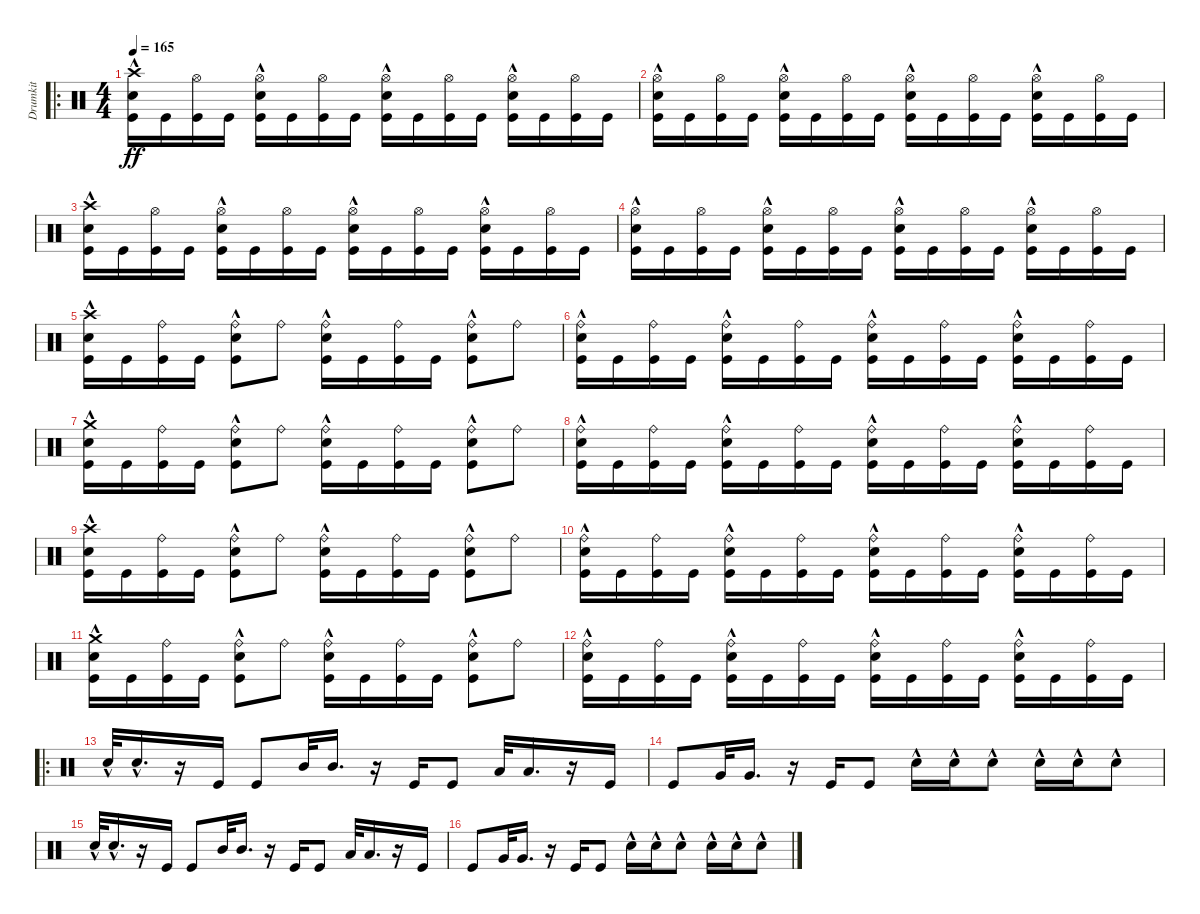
\track ("Drumkit" "Drumkit") {instrument percussion}
\staff {score}
\articulation defaults
\ro
\ts (4 4)
\tempo 165
\clef neutral
\ks c
("Kick (hit)" "Crash high (hit)" "Snare (hit) 2"{hac}).16{dy ff} "Kick (hit)".16 ("Kick (hit)" "Hi-Hat (open)").16 "Kick (hit)".16 ("Kick (hit)" "Snare (hit) 2"{hac} "Hi-Hat (open)").16 "Kick (hit)".16 ("Kick (hit)" "Hi-Hat (open)").16 "Kick (hit)".16 ("Kick (hit)" "Snare (hit) 2"{hac} "Hi-Hat (open)").16 "Kick (hit)".16 ("Kick (hit)" "Hi-Hat (open)").16 "Kick (hit)".16 ("Kick (hit)" "Snare (hit) 2"{hac} "Hi-Hat (open)").16 "Kick (hit)".16 ("Kick (hit)" "Hi-Hat (open)").16 "Kick (hit)".16 |
("Kick (hit)" "Snare (hit) 2"{hac} "Hi-Hat (open)").16 "Kick (hit)".16 ("Kick (hit)" "Hi-Hat (open)").16 "Kick (hit)".16 ("Kick (hit)" "Snare (hit) 2"{hac} "Hi-Hat (open)").16 "Kick (hit)".16 ("Kick (hit)" "Hi-Hat (open)").16 "Kick (hit)".16 ("Kick (hit)" "Snare (hit) 2"{hac} "Hi-Hat (open)").16 "Kick (hit)".16 ("Kick (hit)" "Hi-Hat (open)").16 "Kick (hit)".16 ("Kick (hit)" "Snare (hit) 2"{hac} "Hi-Hat (open)").16 "Kick (hit)".16 ("Kick (hit)" "Hi-Hat (open)").16 "Kick (hit)".16 |
("Kick (hit)" "Crash high (hit)" "Snare (hit) 2"{hac}).16 "Kick (hit)".16 ("Kick (hit)" "Hi-Hat (open)").16 "Kick (hit)".16 ("Kick (hit)" "Snare (hit) 2"{hac} "Hi-Hat (open)").16 "Kick (hit)".16 ("Kick (hit)" "Hi-Hat (open)").16 "Kick (hit)".16 ("Kick (hit)" "Snare (hit) 2"{hac} "Hi-Hat (open)").16 "Kick (hit)".16 ("Kick (hit)" "Hi-Hat (open)").16 "Kick (hit)".16 ("Kick (hit)" "Snare (hit) 2"{hac} "Hi-Hat (open)").16 "Kick (hit)".16 ("Kick (hit)" "Hi-Hat (open)").16 "Kick (hit)".16 |
("Kick (hit)" "Snare (hit) 2"{hac} "Hi-Hat (open)").16 "Kick (hit)".16 ("Kick (hit)" "Hi-Hat (open)").16 "Kick (hit)".16 ("Kick (hit)" "Snare (hit) 2"{hac} "Hi-Hat (open)").16 "Kick (hit)".16 ("Kick (hit)" "Hi-Hat (open)").16 "Kick (hit)".16 ("Kick (hit)" "Snare (hit) 2"{hac} "Hi-Hat (open)").16 "Kick (hit)".16 ("Kick (hit)" "Hi-Hat (open)").16 "Kick (hit)".16 ("Kick (hit)" "Snare (hit) 2"{hac} "Hi-Hat (open)").16 "Kick (hit)".16 ("Kick (hit)" "Hi-Hat (open)").16 "Kick (hit)".16 |
("Kick (hit)" "Crash high (hit)" "Snare (hit) 2"{hac}).16 "Kick (hit)".16 ("Kick (hit)" "Ride (bell)").16 "Kick (hit)".16 ("Kick (hit)" "Snare (hit) 2"{hac} "Ride (bell)").8 "Ride (bell)".8 ("Kick (hit)" "Snare (hit) 2"{hac} "Ride (bell)").16 "Kick (hit)".16 ("Kick (hit)" "Ride (bell)").16 "Kick (hit)".16 ("Snare (hit) 2"{hac} "Ride (bell)" "Kick (hit)").8 "Ride (bell)".8 |
("Kick (hit)" "Snare (hit) 2"{hac} "Ride (bell)").16 "Kick (hit)".16 ("Kick (hit)" "Ride (bell)").16 "Kick (hit)".16 ("Kick (hit)" "Snare (hit) 2"{hac} "Ride (bell)").16 "Kick (hit)".16 ("Kick (hit)" "Ride (bell)").16 "Kick (hit)".16 ("Kick (hit)" "Snare (hit) 2"{hac} "Ride (bell)").16 "Kick (hit)".16 ("Kick (hit)" "Ride (bell)").16 "Kick (hit)".16 ("Kick (hit)" "Snare (hit) 2"{hac} "Ride (bell)").16 "Kick (hit)".16 ("Kick (hit)" "Ride (bell)").16 "Kick (hit)".16 |
("Kick (hit)" "Snare (hit) 2"{hac} "Crash medium (hit)").16 "Kick (hit)".16 ("Kick (hit)" "Ride (bell)").16 "Kick (hit)".16 ("Snare (hit) 2"{hac} "Ride (bell)" "Kick (hit)").8 "Ride (bell)".8 ("Kick (hit)" "Snare (hit) 2"{hac} "Ride (bell)").16 "Kick (hit)".16 ("Kick (hit)" "Ride (bell)").16 "Kick (hit)".16 ("Kick (hit)" "Snare (hit) 2"{hac} "Ride (bell)").8 "Ride (bell)".8 |
("Kick (hit)" "Snare (hit) 2"{hac} "Ride (bell)").16 "Kick (hit)".16 ("Kick (hit)" "Ride (bell)").16 "Kick (hit)".16 ("Kick (hit)" "Snare (hit) 2"{hac} "Ride (bell)").16 "Kick (hit)".16 ("Kick (hit)" "Ride (bell)").16 "Kick (hit)".16 ("Kick (hit)" "Snare (hit) 2"{hac} "Ride (bell)").16 "Kick (hit)".16 ("Kick (hit)" "Ride (bell)").16 "Kick (hit)".16 ("Kick (hit)" "Snare (hit) 2"{hac} "Ride (bell)").16 "Kick (hit)".16 ("Kick (hit)" "Ride (bell)").16 "Kick (hit)".16 |
("Kick (hit)" "Crash high (hit)" "Snare (hit) 2"{hac}).16 "Kick (hit)".16 ("Kick (hit)" "Ride (bell)").16 "Kick (hit)".16 ("Kick (hit)" "Snare (hit) 2"{hac} "Ride (bell)").8 "Ride (bell)".8 ("Kick (hit)" "Snare (hit) 2"{hac} "Ride (bell)").16 "Kick (hit)".16 ("Kick (hit)" "Ride (bell)").16 "Kick (hit)".16 ("Snare (hit) 2"{hac} "Ride (bell)" "Kick (hit)").8 "Ride (bell)".8 |
("Kick (hit)" "Snare (hit) 2"{hac} "Ride (bell)").16 "Kick (hit)".16 ("Kick (hit)" "Ride (bell)").16 "Kick (hit)".16 ("Kick (hit)" "Snare (hit) 2"{hac} "Ride (bell)").16 "Kick (hit)".16 ("Kick (hit)" "Ride (bell)").16 "Kick (hit)".16 ("Kick (hit)" "Snare (hit) 2"{hac} "Ride (bell)").16 "Kick (hit)".16 ("Kick (hit)" "Ride (bell)").16 "Kick (hit)".16 ("Kick (hit)" "Snare (hit) 2"{hac} "Ride (bell)").16 "Kick (hit)".16 ("Kick (hit)" "Ride (bell)").16 "Kick (hit)".16 |
("Kick (hit)" "Snare (hit) 2"{hac} "Crash medium (hit)").16 "Kick (hit)".16 ("Kick (hit)" "Ride (bell)").16 "Kick (hit)".16 ("Snare (hit) 2"{hac} "Ride (bell)" "Kick (hit)").8 "Ride (bell)".8 ("Kick (hit)" "Snare (hit) 2"{hac} "Ride (bell)").16 "Kick (hit)".16 ("Kick (hit)" "Ride (bell)").16 "Kick (hit)".16 ("Kick (hit)" "Snare (hit) 2"{hac} "Ride (bell)").8 "Ride (bell)".8 |
("Kick (hit)" "Snare (hit) 2"{hac} "Ride (bell)").16 "Kick (hit)".16 ("Kick (hit)" "Ride (bell)").16 "Kick (hit)".16 ("Kick (hit)" "Snare (hit) 2"{hac} "Ride (bell)").16 "Kick (hit)".16 ("Kick (hit)" "Ride (bell)").16 "Kick (hit)".16 ("Kick (hit)" "Snare (hit) 2"{hac} "Ride (bell)").16 "Kick (hit)".16 ("Kick (hit)" "Ride (bell)").16 "Kick (hit)".16 ("Kick (hit)" "Snare (hit) 2"{hac} "Ride (bell)").16 "Kick (hit)".16 ("Kick (hit)" "Ride (bell)").16 "Kick (hit)".16 |
\ro "Snare (hit) 2"{hac}.32 "Snare (hit) 2"{hac}.16{d}
r.16 "Kick (hit)".16 "Kick (hit)".8 "Mid Tom (hit)".32 "Mid Tom (hit)".16{d} r.16 "Kick (hit)".16 "Kick (hit)".8 "Low Tom (hit)".32 "Low Tom (hit)".16{d} r.16 "Kick (hit)".16 |
"Kick (hit)".8 "Very Low Tom (hit)".32 "Very Low Tom (hit)".16{d} r.16 "Kick (hit)".16 "Kick (hit)".8 "Snare (hit) 2"{hac}.16 "Snare (hit) 2"{hac}.16 "Snare (hit) 2"{hac}.8 "Snare (hit) 2"{hac}.16 "Snare (hit) 2"{hac}.16 "Snare (hit) 2"{hac}.8 |
"Snare (hit) 2"{hac}.32 "Snare (hit) 2"{hac}.16{d} r.16 "Kick (hit)".16 "Kick (hit)".8 "Mid Tom (hit)".32 "Mid Tom (hit)".16{d} r.16 "Kick (hit)".16 "Kick (hit)".8 "Low Tom (hit)".32 "Low Tom (hit)".16{d} r.16 "Kick (hit)".16 |
"Kick (hit)".8 "Very Low Tom (hit)".32 "Very Low Tom (hit)".16{d} r.16 "Kick (hit)".16 "Kick (hit)".8 "Snare (hit) 2"{hac}.16 "Snare (hit) 2"{hac}.16 "Snare (hit) 2"{hac}.8 "Snare (hit) 2"{hac}.16 "Snare (hit) 2"{hac}.16 "Snare (hit) 2"{hac}.8
